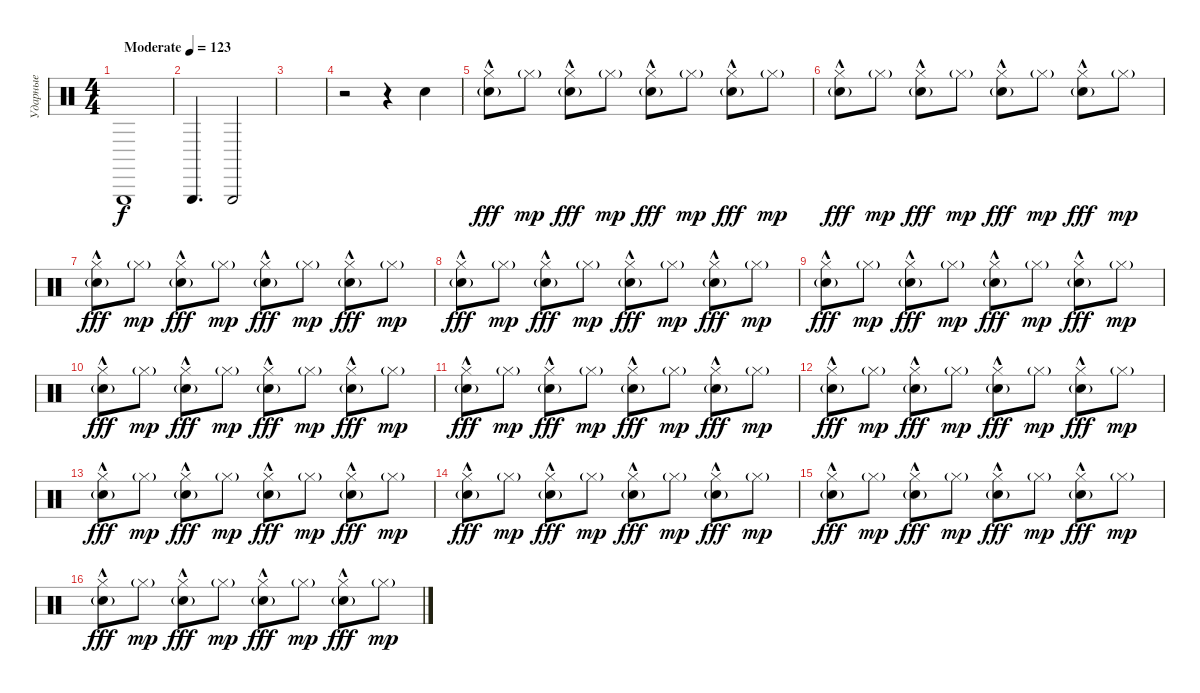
\track ("Ударные" "Ударные") {instrument percussion}
\staff {score}
\articulation defaults
\ts (4 4)
\tempo (123 "Moderate")
\clef neutral
\ks c "Triangle (hit)".1{dy f}
|
"Triangle (hit)".4{d} "Triangle (hit)".2 |
|
r.2 r.4 "Electric Snare (hit)".4 |
("Electric Snare (hit)"{g} "Hi-Hat (closed)"{hac}).8{dy fff} "Hi-Hat (closed)"{g}.8{dy mp} ("Electric Snare (hit)"{g} "Hi-Hat (closed)"{hac}).8{dy fff} "Hi-Hat (closed)"{g}.8{dy mp} ("Electric Snare (hit)"{g} "Hi-Hat (closed)"{hac}).8{dy fff} "Hi-Hat (closed)"{g}.8{dy mp} ("Electric Snare (hit)"{g} "Hi-Hat (closed)"{hac}).8{dy fff} "Hi-Hat (closed)"{g}.8{dy mp} |
("Electric Snare (hit)"{g} "Hi-Hat (closed)"{hac}).8{dy fff} "Hi-Hat (closed)"{g}.8{dy mp} ("Electric Snare (hit)"{g} "Hi-Hat (closed)"{hac}).8{dy fff} "Hi-Hat (closed)"{g}.8{dy mp} ("Electric Snare (hit)"{g} "Hi-Hat (closed)"{hac}).8{dy fff} "Hi-Hat (closed)"{g}.8{dy mp} ("Electric Snare (hit)"{g} "Hi-Hat (closed)"{hac}).8{dy fff} "Hi-Hat (closed)"{g}.8{dy mp} |
("Electric Snare (hit)"{g} "Hi-Hat (closed)"{hac}).8{dy fff} "Hi-Hat (closed)"{g}.8{dy mp} ("Electric Snare (hit)"{g} "Hi-Hat (closed)"{hac}).8{dy fff} "Hi-Hat (closed)"{g}.8{dy mp} ("Electric Snare (hit)"{g} "Hi-Hat (closed)"{hac}).8{dy fff} "Hi-Hat (closed)"{g}.8{dy mp} ("Electric Snare (hit)"{g} "Hi-Hat (closed)"{hac}).8{dy fff} "Hi-Hat (closed)"{g}.8{dy mp} |
("Electric Snare (hit)"{g} "Hi-Hat (closed)"{hac}).8{dy fff} "Hi-Hat (closed)"{g}.8{dy mp} ("Electric Snare (hit)"{g} "Hi-Hat (closed)"{hac}).8{dy fff} "Hi-Hat (closed)"{g}.8{dy mp} ("Electric Snare (hit)"{g} "Hi-Hat (closed)"{hac}).8{dy fff} "Hi-Hat (closed)"{g}.8{dy mp} ("Electric Snare (hit)"{g} "Hi-Hat (closed)"{hac}).8{dy fff} "Hi-Hat (closed)"{g}.8{dy mp} |
("Electric Snare (hit)"{g} "Hi-Hat (closed)"{hac}).8{dy fff} "Hi-Hat (closed)"{g}.8{dy mp} ("Electric Snare (hit)"{g} "Hi-Hat (closed)"{hac}).8{dy fff} "Hi-Hat (closed)"{g}.8{dy mp} ("Electric Snare (hit)"{g} "Hi-Hat (closed)"{hac}).8{dy fff} "Hi-Hat (closed)"{g}.8{dy mp} ("Electric Snare (hit)"{g} "Hi-Hat (closed)"{hac}).8{dy fff} "Hi-Hat (closed)"{g}.8{dy mp} |
("Electric Snare (hit)"{g} "Hi-Hat (closed)"{hac}).8{dy fff} "Hi-Hat (closed)"{g}.8{dy mp} ("Electric Snare (hit)"{g} "Hi-Hat (closed)"{hac}).8{dy fff} "Hi-Hat (closed)"{g}.8{dy mp} ("Electric Snare (hit)"{g} "Hi-Hat (closed)"{hac}).8{dy fff} "Hi-Hat (closed)"{g}.8{dy mp} ("Electric Snare (hit)"{g} "Hi-Hat (closed)"{hac}).8{dy fff} "Hi-Hat (closed)"{g}.8{dy mp} |
("Electric Snare (hit)"{g} "Hi-Hat (closed)"{hac}).8{dy fff} "Hi-Hat (closed)"{g}.8{dy mp} ("Electric Snare (hit)"{g} "Hi-Hat (closed)"{hac}).8{dy fff} "Hi-Hat (closed)"{g}.8{dy mp} ("Electric Snare (hit)"{g} "Hi-Hat (closed)"{hac}).8{dy fff} "Hi-Hat (closed)"{g}.8{dy mp} ("Electric Snare (hit)"{g} "Hi-Hat (closed)"{hac}).8{dy fff} "Hi-Hat (closed)"{g}.8{dy mp} |
("Electric Snare (hit)"{g} "Hi-Hat (closed)"{hac}).8{dy fff} "Hi-Hat (closed)"{g}.8{dy mp} ("Electric Snare (hit)"{g} "Hi-Hat (closed)"{hac}).8{dy fff} "Hi-Hat (closed)"{g}.8{dy mp} ("Electric Snare (hit)"{g} "Hi-Hat (closed)"{hac}).8{dy fff} "Hi-Hat (closed)"{g}.8{dy mp} ("Electric Snare (hit)"{g} "Hi-Hat (closed)"{hac}).8{dy fff} "Hi-Hat (closed)"{g}.8{dy mp} |
("Electric Snare (hit)"{g} "Hi-Hat (closed)"{hac}).8{dy fff} "Hi-Hat (closed)"{g}.8{dy mp} ("Electric Snare (hit)"{g} "Hi-Hat (closed)"{hac}).8{dy fff} "Hi-Hat (closed)"{g}.8{dy mp} ("Electric Snare (hit)"{g} "Hi-Hat (closed)"{hac}).8{dy fff} "Hi-Hat (closed)"{g}.8{dy mp} ("Electric Snare (hit)"{g} "Hi-Hat (closed)"{hac}).8{dy fff} "Hi-Hat (closed)"{g}.8{dy mp} |
("Electric Snare (hit)"{g} "Hi-Hat (closed)"{hac}).8{dy fff} "Hi-Hat (closed)"{g}.8{dy mp} ("Electric Snare (hit)"{g} "Hi-Hat (closed)"{hac}).8{dy fff} "Hi-Hat (closed)"{g}.8{dy mp} ("Electric Snare (hit)"{g} "Hi-Hat (closed)"{hac}).8{dy fff} "Hi-Hat (closed)"{g}.8{dy mp} ("Electric Snare (hit)"{g} "Hi-Hat (closed)"{hac}).8{dy fff} "Hi-Hat (closed)"{g}.8{dy mp} |
("Electric Snare (hit)"{g} "Hi-Hat (closed)"{hac}).8{dy fff} "Hi-Hat (closed)"{g}.8{dy mp} ("Electric Snare (hit)"{g} "Hi-Hat (closed)"{hac}).8{dy fff} "Hi-Hat (closed)"{g}.8{dy mp} ("Electric Snare (hit)"{g} "Hi-Hat (closed)"{hac}).8{dy fff} "Hi-Hat (closed)"{g}.8{dy mp} ("Electric Snare (hit)"{g} "Hi-Hat (closed)"{hac}).8{dy fff} "Hi-Hat (closed)"{g}.8{dy mp} |
("Electric Snare (hit)"{g} "Hi-Hat (closed)"{hac}).8{dy fff} "Hi-Hat (closed)"{g}.8{dy mp} ("Electric Snare (hit)"{g} "Hi-Hat (closed)"{hac}).8{dy fff} "Hi-Hat (closed)"{g}.8{dy mp} ("Electric Snare (hit)"{g} "Hi-Hat (closed)"{hac}).8{dy fff} "Hi-Hat (closed)"{g}.8{dy mp} ("Electric Snare (hit)"{g} "Hi-Hat (closed)"{hac}).8{dy fff} "Hi-Hat (closed)"{g}.8{dy mp}
